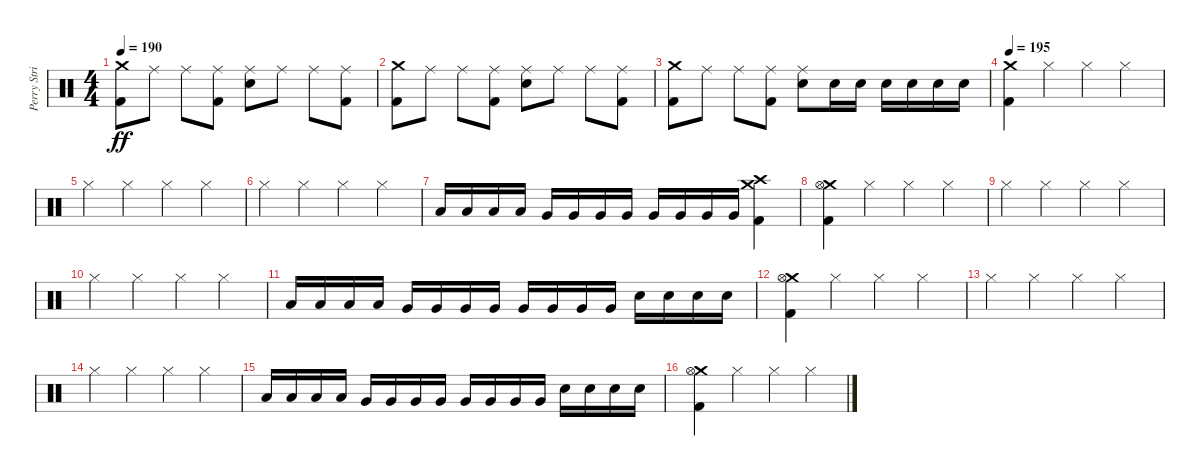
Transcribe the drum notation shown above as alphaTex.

\track ("Perry Strickland" "Perry Stri") {instrument percussion}
\staff {score}
\articulation defaults
\ts (4 4)
\tempo 190
\clef neutral
\ks c
("Crash medium (hit)" "Kick (hit) 2").8{dy ff} "Ride (middle)".8 "Ride (middle)".8 ("Ride (middle)" "Kick (hit) 2").8 ("Ride (middle)" "Snare (hit) 2").8 "Ride (middle)".8 "Ride (middle)".8 ("Ride (middle)" "Kick (hit) 2").8 |
("Crash medium (hit)" "Kick (hit) 2").8 "Ride (middle)".8 "Ride (middle)".8 ("Ride (middle)" "Kick (hit) 2").8 ("Ride (middle)" "Snare (hit) 2").8 "Ride (middle)".8 "Ride (middle)".8 ("Ride (middle)" "Kick (hit) 2").8 |
("Crash medium (hit)" "Kick (hit) 2").8 "Ride (middle)".8 "Ride (middle)".8 ("Ride (middle)" "Kick (hit) 2").8 ("Ride (middle)" "Snare (hit) 2").8 "Snare (hit) 2".16 "Snare (hit) 2".16 "Snare (hit) 2".16 "Snare (hit) 2".16 "Snare (hit) 2".16 "Snare (hit) 2".16 |
\tempo 195
("Crash medium (hit)" "Kick (hit) 2").4 "Hi-Hat (closed)".4 "Hi-Hat (closed)".4 "Hi-Hat (closed)".4 |
"Hi-Hat (closed)".4 "Hi-Hat (closed)".4 "Hi-Hat (closed)".4 "Hi-Hat (closed)".4 |
"Hi-Hat (closed)".4 "Hi-Hat (closed)".4 "Hi-Hat (closed)".4 "Hi-Hat (closed)".4 |
"Low Tom (hit)".16 "Low Tom (hit)".16 "Low Tom (hit)".16 "Low Tom (hit)".16 "Very Low Tom (hit)".16 "Very Low Tom (hit)".16 "Very Low Tom (hit)".16 "Very Low Tom (hit)".16 "Very Low Tom (hit)".16 "Very Low Tom (hit)".16 "Very Low Tom (hit)".16 "Very Low Tom (hit)".16 ("Crash medium (hit)" "Crash high (hit)" "Kick (hit) 2").4 |
("Crash medium (hit)" "Hi-Hat (open)" "Kick (hit) 2").4 "Hi-Hat (closed)".4 "Hi-Hat (closed)".4 "Hi-Hat (closed)".4 |
"Hi-Hat (closed)".4 "Hi-Hat (closed)".4 "Hi-Hat (closed)".4 "Hi-Hat (closed)".4 |
"Hi-Hat (closed)".4 "Hi-Hat (closed)".4 "Hi-Hat (closed)".4 "Hi-Hat (closed)".4 |
"Low Tom (hit)".16 "Low Tom (hit)".16 "Low Tom (hit)".16 "Low Tom (hit)".16 "Very Low Tom (hit)".16 "Very Low Tom (hit)".16 "Very Low Tom (hit)".16 "Very Low Tom (hit)".16 "Very Low Tom (hit)".16 "Very Low Tom (hit)".16 "Very Low Tom (hit)".16 "Very Low Tom (hit)".16 "Snare (hit) 2".16 "Snare (hit) 2".16 "Snare (hit) 2".16 "Snare (hit) 2".16 |
("Crash medium (hit)" "Hi-Hat (open)" "Kick (hit) 2").4 "Hi-Hat (closed)".4 "Hi-Hat (closed)".4 "Hi-Hat (closed)".4 |
"Hi-Hat (closed)".4 "Hi-Hat (closed)".4 "Hi-Hat (closed)".4 "Hi-Hat (closed)".4 |
"Hi-Hat (closed)".4 "Hi-Hat (closed)".4 "Hi-Hat (closed)".4 "Hi-Hat (closed)".4 |
"Low Tom (hit)".16 "Low Tom (hit)".16 "Low Tom (hit)".16 "Low Tom (hit)".16 "Very Low Tom (hit)".16 "Very Low Tom (hit)".16 "Very Low Tom (hit)".16 "Very Low Tom (hit)".16 "Very Low Tom (hit)".16 "Very Low Tom (hit)".16 "Very Low Tom (hit)".16 "Very Low Tom (hit)".16 "Snare (hit) 2".16 "Snare (hit) 2".16 "Snare (hit) 2".16 "Snare (hit) 2".16 |
("Crash medium (hit)" "Hi-Hat (open)" "Kick (hit) 2").4 "Hi-Hat (closed)".4 "Hi-Hat (closed)".4 "Hi-Hat (closed)".4
